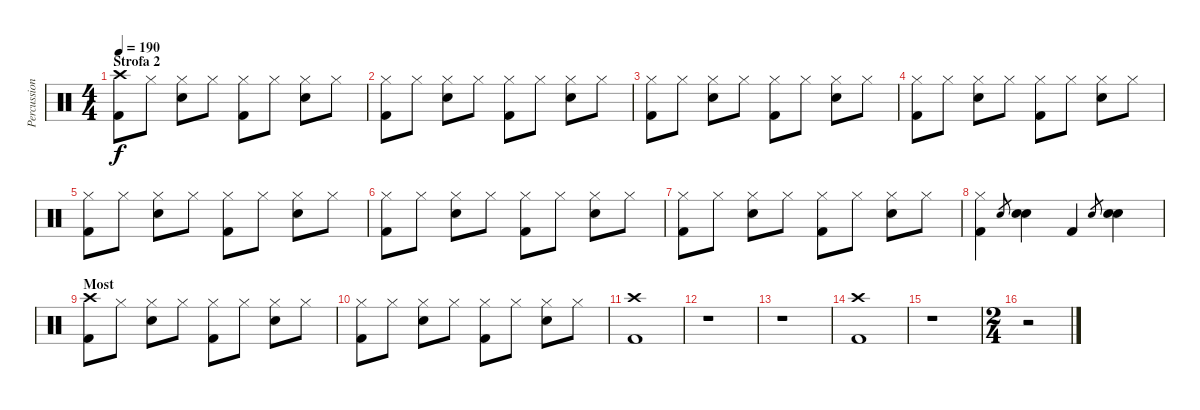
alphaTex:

\track ("Percussion" "Percussion") {instrument percussion}
\staff {score}
\articulation defaults
\ts (4 4)
\section ("" "Strofa 2")
\tempo 190
\clef neutral
\ks c
("Crash high (hit)" "Kick (hit) 2").8{dy f} "Hi-Hat (closed)".8 ("Hi-Hat (closed)" "Electric Snare (hit)").8 "Hi-Hat (closed)".8 ("Hi-Hat (closed)" "Kick (hit) 2").8 "Hi-Hat (closed)".8 ("Hi-Hat (closed)" "Electric Snare (hit)").8 "Hi-Hat (closed)".8 |
("Hi-Hat (closed)" "Kick (hit) 2").8 "Hi-Hat (closed)".8 ("Hi-Hat (closed)" "Electric Snare (hit)").8 "Hi-Hat (closed)".8 ("Hi-Hat (closed)" "Kick (hit) 2").8 "Hi-Hat (closed)".8 ("Hi-Hat (closed)" "Electric Snare (hit)").8 "Hi-Hat (closed)".8 |
("Hi-Hat (closed)" "Kick (hit) 2").8 "Hi-Hat (closed)".8 ("Hi-Hat (closed)" "Electric Snare (hit)").8 "Hi-Hat (closed)".8 ("Hi-Hat (closed)" "Kick (hit) 2").8 "Hi-Hat (closed)".8 ("Hi-Hat (closed)" "Electric Snare (hit)").8 "Hi-Hat (closed)".8 |
("Hi-Hat (closed)" "Kick (hit) 2").8 "Hi-Hat (closed)".8 ("Hi-Hat (closed)" "Electric Snare (hit)").8 "Hi-Hat (closed)".8 ("Hi-Hat (closed)" "Kick (hit) 2").8 "Hi-Hat (closed)".8 ("Hi-Hat (closed)" "Electric Snare (hit)").8 "Hi-Hat (closed)".8 |
("Hi-Hat (closed)" "Kick (hit) 2").8 "Hi-Hat (closed)".8 ("Hi-Hat (closed)" "Electric Snare (hit)").8 "Hi-Hat (closed)".8 ("Hi-Hat (closed)" "Kick (hit) 2").8 "Hi-Hat (closed)".8 ("Hi-Hat (closed)" "Electric Snare (hit)").8 "Hi-Hat (closed)".8 |
("Hi-Hat (closed)" "Kick (hit) 2").8 "Hi-Hat (closed)".8 ("Hi-Hat (closed)" "Electric Snare (hit)").8 "Hi-Hat (closed)".8 ("Hi-Hat (closed)" "Kick (hit) 2").8 "Hi-Hat (closed)".8 ("Hi-Hat (closed)" "Electric Snare (hit)").8 "Hi-Hat (closed)".8 |
("Hi-Hat (closed)" "Kick (hit) 2").8 "Hi-Hat (closed)".8 ("Hi-Hat (closed)" "Electric Snare (hit)").8 "Hi-Hat (closed)".8 ("Hi-Hat (closed)" "Kick (hit) 2").8 "Hi-Hat (closed)".8 ("Hi-Hat (closed)" "Electric Snare (hit)").8 "Hi-Hat (closed)".8 |
("Hi-Hat (closed)" "Kick (hit) 2").4 "Electric Snare (hit)".8{gr} ("Electric Snare (hit)" "Electric Snare (hit)").4 "Kick (hit) 2".4 "Electric Snare (hit)".8{gr} ("Electric Snare (hit)" "Electric Snare (hit)").4 |
\section ("" "Most")
("Crash high (hit)" "Kick (hit) 2").8 "Hi-Hat (closed)".8 ("Hi-Hat (closed)" "Electric Snare (hit)").8 "Hi-Hat (closed)".8 ("Hi-Hat (closed)" "Kick (hit) 2").8 "Hi-Hat (closed)".8 ("Hi-Hat (closed)" "Electric Snare (hit)").8 "Hi-Hat (closed)".8 |
("Hi-Hat (closed)" "Kick (hit) 2").8 "Hi-Hat (closed)".8 ("Hi-Hat (closed)" "Electric Snare (hit)").8 "Hi-Hat (closed)".8 ("Hi-Hat (closed)" "Kick (hit) 2").8 "Hi-Hat (closed)".8 ("Hi-Hat (closed)" "Electric Snare (hit)").8 "Hi-Hat (closed)".8 |
("Crash high (hit)" "Kick (hit) 2").1 |
r.1 |
r.1 |
("Crash high (hit)" "Kick (hit) 2").1 |
r.1 |
\ts (2 4)
r.2
